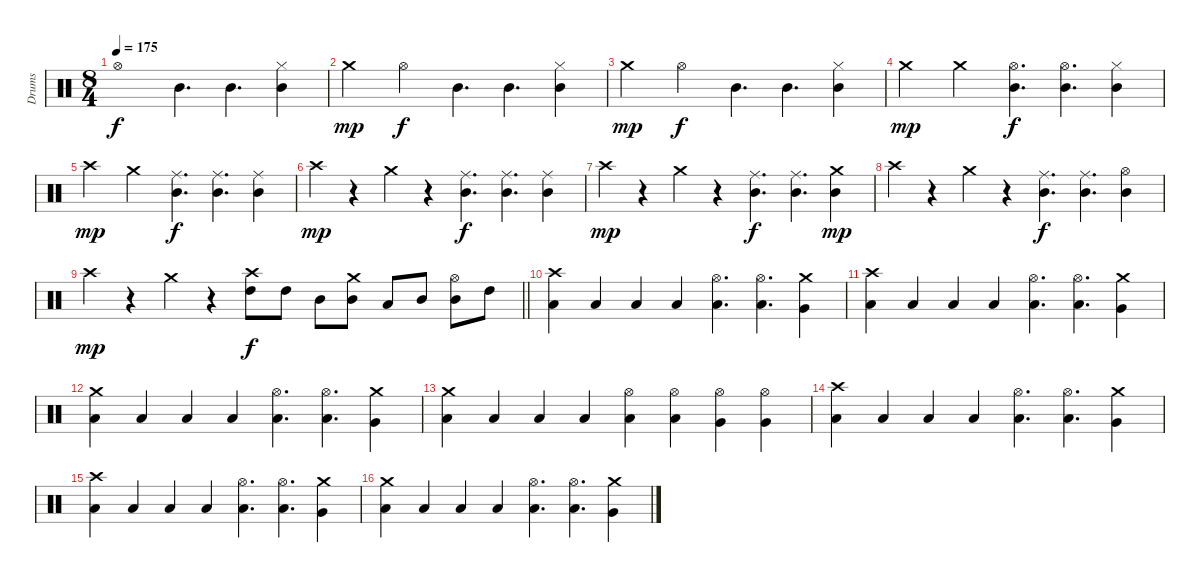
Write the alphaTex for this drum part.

\track ("Drums" "Drums") {instrument percussion}
\staff {score}
\articulation defaults
\ts (8 4)
\tempo 175
\clef neutral
\ks c "Hi-Hat (open)".1{dy f} "Mid Tom (hit)".4{d} "Mid Tom (hit)".4{d}
("Hi-Hat (closed)" "Mid Tom (hit)").4 |
"Crash medium (hit)".2{dy mp} "Hi-Hat (open)".2{dy f} "Mid Tom (hit)".4{d} "Mid Tom (hit)".4{d} ("Hi-Hat (closed)" "Mid Tom (hit)").4 |
"Crash medium (hit)".2{dy mp} "Hi-Hat (open)".2{dy f} "Mid Tom (hit)".4{d} "Mid Tom (hit)".4{d} ("Hi-Hat (closed)" "Mid Tom (hit)").4 |
"Crash medium (hit)".2{dy mp} "Crash medium (hit)".2 ("Hi-Hat (open)" "Mid Tom (hit)").4{d dy f} ("Hi-Hat (open)" "Mid Tom (hit)").4{d} ("Hi-Hat (closed)" "Mid Tom (hit)").4 |
"Crash high (hit)".2{dy mp} "Crash medium (hit)".2 ("Ride (middle)" "Mid Tom (hit)").4{d dy f} ("Ride (middle)" "Mid Tom (hit)").4{d} ("Ride (middle)" "Mid Tom (hit)").4 |
"Crash high (hit)".4{dy mp} r.4 "Crash medium (hit)".4 r.4 ("Ride (middle)" "Mid Tom (hit)").4{d dy f} ("Ride (middle)" "Mid Tom (hit)").4{d} ("Ride (middle)" "Mid Tom (hit)").4 |
"Crash high (hit)".4{dy mp} r.4 "Crash medium (hit)".4 r.4 ("Ride (middle)" "Mid Tom (hit)").4{d dy f} ("Ride (middle)" "Mid Tom (hit)").4{d} ("Crash medium (hit)" "Mid Tom (hit)").4{dy mp} |
"Crash high (hit)".4 r.4 "Crash medium (hit)".4 r.4 ("Ride (middle)" "Mid Tom (hit)").4{d dy f} ("Ride (middle)" "Mid Tom (hit)").4{d} ("Hi-Hat (open)" "Mid Tom (hit)").4 |
\barLineRight lightlight "Crash high (hit)".4{dy mp}
r.4 "Crash medium (hit)".4 r.4 ("Crash high (hit)" "High Tom (hit)").8{dy f} "High Tom (hit)".8 "Mid Tom (hit)".8 ("Crash medium (hit)" "Mid Tom (hit)").8 "Low Tom (hit)".8 "Mid Tom (hit)".8 ("Hi-Hat (open)" "Mid Tom (hit)").8 "High Tom (hit)".8 |
\section ("" "")
("Crash high (hit)" "Low Tom (hit)").4 "Low Tom (hit)".4 "Low Tom (hit)".4 "Low Tom (hit)".4 ("Hi-Hat (open)" "Low Tom (hit)").4{d} ("Hi-Hat (open)" "Low Tom (hit)").4{d} ("Crash medium (hit)" "Very Low Tom (hit)").4 |
("Crash high (hit)" "Low Tom (hit)").4 "Low Tom (hit)".4 "Low Tom (hit)".4 "Low Tom (hit)".4 ("Hi-Hat (open)" "Low Tom (hit)").4{d} ("Hi-Hat (open)" "Low Tom (hit)").4{d} ("Crash medium (hit)" "Very Low Tom (hit)").4 |
("Crash medium (hit)" "Low Tom (hit)").4 "Low Tom (hit)".4 "Low Tom (hit)".4 "Low Tom (hit)".4 ("Hi-Hat (open)" "Low Tom (hit)").4{d} ("Hi-Hat (open)" "Low Tom (hit)").4{d} ("Crash medium (hit)" "Very Low Tom (hit)").4 |
("Crash medium (hit)" "Low Tom (hit)").4 "Low Tom (hit)".4 "Low Tom (hit)".4 "Low Tom (hit)".4 ("Hi-Hat (open)" "Low Tom (hit)").4 ("Hi-Hat (open)" "Low Tom (hit)").4 ("Hi-Hat (open)" "Very Low Tom (hit)").4 ("Hi-Hat (open)" "Very Low Tom (hit)").4 |
("Crash high (hit)" "Low Tom (hit)").4 "Low Tom (hit)".4 "Low Tom (hit)".4 "Low Tom (hit)".4 ("Hi-Hat (open)" "Low Tom (hit)").4{d} ("Hi-Hat (open)" "Low Tom (hit)").4{d} ("Crash medium (hit)" "Very Low Tom (hit)").4 |
("Crash high (hit)" "Low Tom (hit)").4 "Low Tom (hit)".4 "Low Tom (hit)".4 "Low Tom (hit)".4 ("Hi-Hat (open)" "Low Tom (hit)").4{d} ("Hi-Hat (open)" "Low Tom (hit)").4{d} ("Crash medium (hit)" "Very Low Tom (hit)").4 |
("Crash medium (hit)" "Low Tom (hit)").4 "Low Tom (hit)".4 "Low Tom (hit)".4 "Low Tom (hit)".4 ("Hi-Hat (open)" "Low Tom (hit)").4{d} ("Hi-Hat (open)" "Low Tom (hit)").4{d} ("Crash medium (hit)" "Very Low Tom (hit)").4
